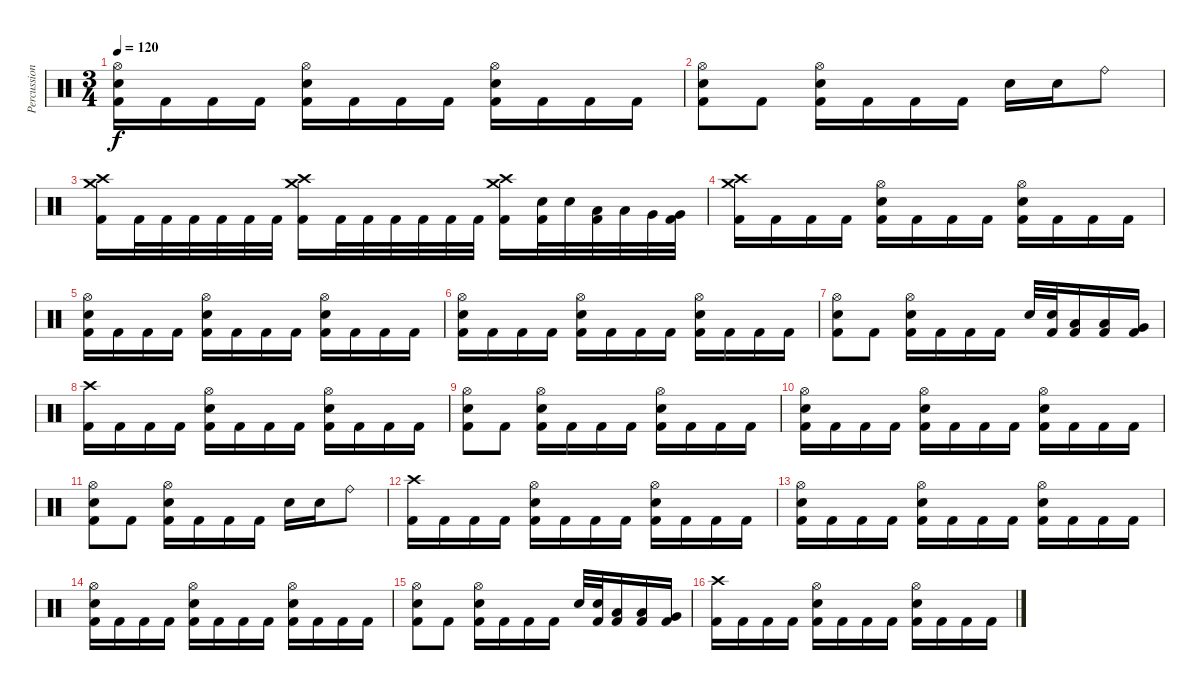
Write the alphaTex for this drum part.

\track ("Percussion" "Percussion") {instrument percussion}
\staff {score}
\articulation defaults
\ts (3 4)
\tempo 120
\clef neutral
\ks c
("Hi-Hat (open)" "Electric Snare (hit)" "Kick (hit) 2").16{dy f} "Kick (hit) 2".16 "Kick (hit) 2".16 "Kick (hit) 2".16 ("Hi-Hat (open)" "Electric Snare (hit)" "Kick (hit) 2").16 "Kick (hit) 2".16 "Kick (hit) 2".16 "Kick (hit) 2".16 ("Hi-Hat (open)" "Electric Snare (hit)" "Kick (hit) 2").16 "Kick (hit) 2".16 "Kick (hit) 2".16 "Kick (hit) 2".16 |
("Hi-Hat (open)" "Electric Snare (hit)" "Kick (hit) 2").8 "Kick (hit) 2".8 ("Hi-Hat (open)" "Electric Snare (hit)" "Kick (hit) 2").16 "Kick (hit) 2".16 "Kick (hit) 2".16 "Kick (hit) 2".16 "Electric Snare (hit)".16 "Electric Snare (hit)".16 "Ride (bell)".8 |
("Crash high (hit)" "Crash medium (hit)" "Kick (hit) 2").16 "Kick (hit) 2".32 "Kick (hit) 2".32 "Kick (hit) 2".32 "Kick (hit) 2".32 "Kick (hit) 2".32 "Kick (hit) 2".32 ("Crash high (hit)" "Crash medium (hit)" "Kick (hit) 2").16 "Kick (hit) 2".32 "Kick (hit) 2".32 "Kick (hit) 2".32 "Kick (hit) 2".32 "Kick (hit) 2".32 "Kick (hit) 2".32 ("Crash high (hit)" "Crash medium (hit)" "Kick (hit) 2").16 ("Electric Snare (hit)" "Kick (hit) 2").32 "Electric Snare (hit)".32 ("Low Tom (hit)" "Kick (hit) 2").32 "Low Tom (hit)".32 "Very Low Tom (hit)".32 ("Very Low Tom (hit)" "Kick (hit) 2").32 |
("Crash high (hit)" "Crash medium (hit)" "Kick (hit) 2").16 "Kick (hit) 2".16 "Kick (hit) 2".16 "Kick (hit) 2".16 ("Hi-Hat (open)" "Electric Snare (hit)" "Kick (hit) 2").16 "Kick (hit) 2".16 "Kick (hit) 2".16 "Kick (hit) 2".16 ("Hi-Hat (open)" "Electric Snare (hit)" "Kick (hit) 2").16 "Kick (hit) 2".16 "Kick (hit) 2".16 "Kick (hit) 2".16 |
("Hi-Hat (open)" "Electric Snare (hit)" "Kick (hit) 2").16 "Kick (hit) 2".16 "Kick (hit) 2".16 "Kick (hit) 2".16 ("Hi-Hat (open)" "Electric Snare (hit)" "Kick (hit) 2").16 "Kick (hit) 2".16 "Kick (hit) 2".16 "Kick (hit) 2".16 ("Hi-Hat (open)" "Electric Snare (hit)" "Kick (hit) 2").16 "Kick (hit) 2".16 "Kick (hit) 2".16 "Kick (hit) 2".16 |
("Hi-Hat (open)" "Electric Snare (hit)" "Kick (hit) 2").16 "Kick (hit) 2".16 "Kick (hit) 2".16 "Kick (hit) 2".16 ("Hi-Hat (open)" "Electric Snare (hit)" "Kick (hit) 2").16 "Kick (hit) 2".16 "Kick (hit) 2".16 "Kick (hit) 2".16 ("Hi-Hat (open)" "Electric Snare (hit)" "Kick (hit) 2").16 "Kick (hit) 2".16 "Kick (hit) 2".16 "Kick (hit) 2".16 |
("Hi-Hat (open)" "Electric Snare (hit)" "Kick (hit) 2").8 "Kick (hit) 2".8 ("Hi-Hat (open)" "Electric Snare (hit)" "Kick (hit) 2").16 "Kick (hit) 2".16 "Kick (hit) 2".16 "Kick (hit) 2".16 "Electric Snare (hit)".32 ("Electric Snare (hit)" "Kick (hit) 2").32 ("Low Tom (hit)" "Kick (hit) 2").16 ("Low Tom (hit)" "Kick (hit) 2").16 ("Very Low Tom (hit)" "Kick (hit) 2").16 |
("Crash high (hit)" "Kick (hit) 2").16 "Kick (hit) 2".16 "Kick (hit) 2".16 "Kick (hit) 2".16 ("Hi-Hat (open)" "Electric Snare (hit)" "Kick (hit) 2").16 "Kick (hit) 2".16 "Kick (hit) 2".16 "Kick (hit) 2".16 ("Hi-Hat (open)" "Electric Snare (hit)" "Kick (hit) 2").16 "Kick (hit) 2".16 "Kick (hit) 2".16 "Kick (hit) 2".16 |
("Hi-Hat (open)" "Electric Snare (hit)" "Kick (hit) 2").8 "Kick (hit) 2".8 ("Hi-Hat (open)" "Electric Snare (hit)" "Kick (hit) 2").16 "Kick (hit) 2".16 "Kick (hit) 2".16 "Kick (hit) 2".16 ("Hi-Hat (open)" "Electric Snare (hit)" "Kick (hit) 2").16 "Kick (hit) 2".16 "Kick (hit) 2".16 "Kick (hit) 2".16 |
("Hi-Hat (open)" "Electric Snare (hit)" "Kick (hit) 2").16 "Kick (hit) 2".16 "Kick (hit) 2".16 "Kick (hit) 2".16 ("Hi-Hat (open)" "Electric Snare (hit)" "Kick (hit) 2").16 "Kick (hit) 2".16 "Kick (hit) 2".16 "Kick (hit) 2".16 ("Hi-Hat (open)" "Electric Snare (hit)" "Kick (hit) 2").16 "Kick (hit) 2".16 "Kick (hit) 2".16 "Kick (hit) 2".16 |
("Hi-Hat (open)" "Electric Snare (hit)" "Kick (hit) 2").8 "Kick (hit) 2".8 ("Hi-Hat (open)" "Electric Snare (hit)" "Kick (hit) 2").16 "Kick (hit) 2".16 "Kick (hit) 2".16 "Kick (hit) 2".16 "Electric Snare (hit)".16 "Electric Snare (hit)".16 "Ride (bell)".8 |
("Crash high (hit)" "Kick (hit) 2").16 "Kick (hit) 2".16 "Kick (hit) 2".16 "Kick (hit) 2".16 ("Hi-Hat (open)" "Electric Snare (hit)" "Kick (hit) 2").16 "Kick (hit) 2".16 "Kick (hit) 2".16 "Kick (hit) 2".16 ("Hi-Hat (open)" "Electric Snare (hit)" "Kick (hit) 2").16 "Kick (hit) 2".16 "Kick (hit) 2".16 "Kick (hit) 2".16 |
("Hi-Hat (open)" "Electric Snare (hit)" "Kick (hit) 2").16 "Kick (hit) 2".16 "Kick (hit) 2".16 "Kick (hit) 2".16 ("Hi-Hat (open)" "Electric Snare (hit)" "Kick (hit) 2").16 "Kick (hit) 2".16 "Kick (hit) 2".16 "Kick (hit) 2".16 ("Hi-Hat (open)" "Electric Snare (hit)" "Kick (hit) 2").16 "Kick (hit) 2".16 "Kick (hit) 2".16 "Kick (hit) 2".16 |
("Hi-Hat (open)" "Electric Snare (hit)" "Kick (hit) 2").16 "Kick (hit) 2".16 "Kick (hit) 2".16 "Kick (hit) 2".16 ("Hi-Hat (open)" "Electric Snare (hit)" "Kick (hit) 2").16 "Kick (hit) 2".16 "Kick (hit) 2".16 "Kick (hit) 2".16 ("Hi-Hat (open)" "Electric Snare (hit)" "Kick (hit) 2").16 "Kick (hit) 2".16 "Kick (hit) 2".16 "Kick (hit) 2".16 |
("Hi-Hat (open)" "Electric Snare (hit)" "Kick (hit) 2").8 "Kick (hit) 2".8 ("Hi-Hat (open)" "Electric Snare (hit)" "Kick (hit) 2").16 "Kick (hit) 2".16 "Kick (hit) 2".16 "Kick (hit) 2".16 "Electric Snare (hit)".32 ("Electric Snare (hit)" "Kick (hit) 2").32 ("Low Tom (hit)" "Kick (hit) 2").16 ("Low Tom (hit)" "Kick (hit) 2").16 ("Very Low Tom (hit)" "Kick (hit) 2").16 |
("Crash high (hit)" "Kick (hit) 2").16 "Kick (hit) 2".16 "Kick (hit) 2".16 "Kick (hit) 2".16 ("Hi-Hat (open)" "Electric Snare (hit)" "Kick (hit) 2").16 "Kick (hit) 2".16 "Kick (hit) 2".16 "Kick (hit) 2".16 ("Hi-Hat (open)" "Electric Snare (hit)" "Kick (hit) 2").16 "Kick (hit) 2".16 "Kick (hit) 2".16 "Kick (hit) 2".16
